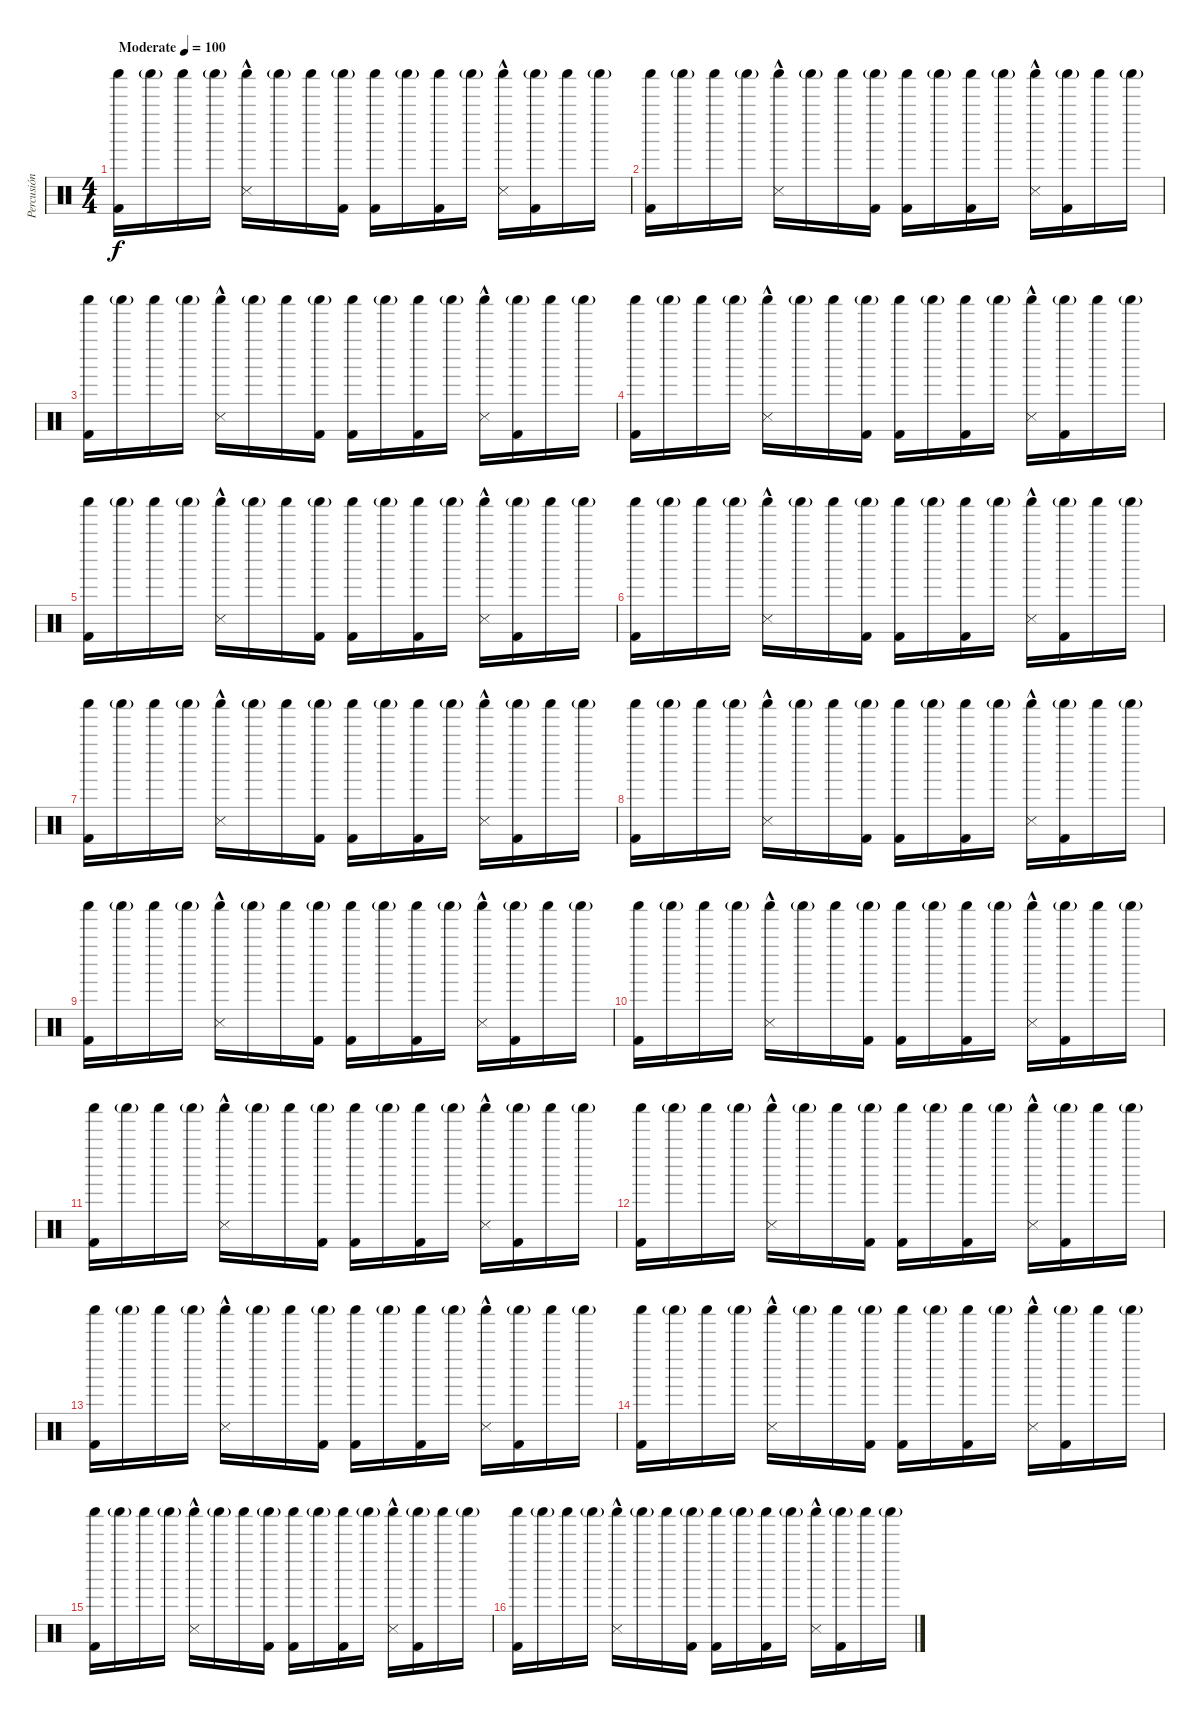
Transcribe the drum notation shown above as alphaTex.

\track ("Percusión" "Percusión") {instrument percussion}
\staff {score}
\articulation defaults
\ts (4 4)
\tempo (100 "Moderate")
\clef neutral
\ks c
("Shaker (hit)" "Kick (hit) 2").16{dy f} "Shaker (hit)"{g}.16 "Shaker (hit)".16 "Shaker (hit)"{g}.16 ("Shaker (hit)" "Metronome (hit)"{hac}).16 "Shaker (hit)"{g}.16 "Shaker (hit)".16 ("Shaker (hit)"{g} "Kick (hit) 2").16 ("Shaker (hit)" "Kick (hit) 2").16 "Shaker (hit)"{g}.16 ("Shaker (hit)" "Kick (hit) 2").16 "Shaker (hit)"{g}.16 ("Shaker (hit)" "Metronome (hit)"{hac}).16 ("Shaker (hit)"{g} "Kick (hit) 2").16 "Shaker (hit)".16 "Shaker (hit)"{g}.16 |
("Shaker (hit)" "Kick (hit) 2").16 "Shaker (hit)"{g}.16 "Shaker (hit)".16 "Shaker (hit)"{g}.16 ("Shaker (hit)" "Metronome (hit)"{hac}).16 "Shaker (hit)"{g}.16 "Shaker (hit)".16 ("Shaker (hit)"{g} "Kick (hit) 2").16 ("Shaker (hit)" "Kick (hit) 2").16 "Shaker (hit)"{g}.16 ("Shaker (hit)" "Kick (hit) 2").16 "Shaker (hit)"{g}.16 ("Shaker (hit)" "Metronome (hit)"{hac}).16 ("Shaker (hit)"{g} "Kick (hit) 2").16 "Shaker (hit)".16 "Shaker (hit)"{g}.16 |
("Shaker (hit)" "Kick (hit) 2").16 "Shaker (hit)"{g}.16 "Shaker (hit)".16 "Shaker (hit)"{g}.16 ("Shaker (hit)" "Metronome (hit)"{hac}).16 "Shaker (hit)"{g}.16 "Shaker (hit)".16 ("Shaker (hit)"{g} "Kick (hit) 2").16 ("Shaker (hit)" "Kick (hit) 2").16 "Shaker (hit)"{g}.16 ("Shaker (hit)" "Kick (hit) 2").16 "Shaker (hit)"{g}.16 ("Shaker (hit)" "Metronome (hit)"{hac}).16 ("Shaker (hit)"{g} "Kick (hit) 2").16 "Shaker (hit)".16 "Shaker (hit)"{g}.16 |
("Shaker (hit)" "Kick (hit) 2").16 "Shaker (hit)"{g}.16 "Shaker (hit)".16 "Shaker (hit)"{g}.16 ("Shaker (hit)" "Metronome (hit)"{hac}).16 "Shaker (hit)"{g}.16 "Shaker (hit)".16 ("Shaker (hit)"{g} "Kick (hit) 2").16 ("Shaker (hit)" "Kick (hit) 2").16 "Shaker (hit)"{g}.16 ("Shaker (hit)" "Kick (hit) 2").16 "Shaker (hit)"{g}.16 ("Shaker (hit)" "Metronome (hit)"{hac}).16 ("Shaker (hit)"{g} "Kick (hit) 2").16 "Shaker (hit)".16 "Shaker (hit)"{g}.16 |
("Shaker (hit)" "Kick (hit) 2").16 "Shaker (hit)"{g}.16 "Shaker (hit)".16 "Shaker (hit)"{g}.16 ("Shaker (hit)" "Metronome (hit)"{hac}).16 "Shaker (hit)"{g}.16 "Shaker (hit)".16 ("Shaker (hit)"{g} "Kick (hit) 2").16 ("Shaker (hit)" "Kick (hit) 2").16 "Shaker (hit)"{g}.16 ("Shaker (hit)" "Kick (hit) 2").16 "Shaker (hit)"{g}.16 ("Shaker (hit)" "Metronome (hit)"{hac}).16 ("Shaker (hit)"{g} "Kick (hit) 2").16 "Shaker (hit)".16 "Shaker (hit)"{g}.16 |
("Shaker (hit)" "Kick (hit) 2").16 "Shaker (hit)"{g}.16 "Shaker (hit)".16 "Shaker (hit)"{g}.16 ("Shaker (hit)" "Metronome (hit)"{hac}).16 "Shaker (hit)"{g}.16 "Shaker (hit)".16 ("Shaker (hit)"{g} "Kick (hit) 2").16 ("Shaker (hit)" "Kick (hit) 2").16 "Shaker (hit)"{g}.16 ("Shaker (hit)" "Kick (hit) 2").16 "Shaker (hit)"{g}.16 ("Shaker (hit)" "Metronome (hit)"{hac}).16 ("Shaker (hit)"{g} "Kick (hit) 2").16 "Shaker (hit)".16 "Shaker (hit)"{g}.16 |
("Shaker (hit)" "Kick (hit) 2").16 "Shaker (hit)"{g}.16 "Shaker (hit)".16 "Shaker (hit)"{g}.16 ("Shaker (hit)" "Metronome (hit)"{hac}).16 "Shaker (hit)"{g}.16 "Shaker (hit)".16 ("Shaker (hit)"{g} "Kick (hit) 2").16 ("Shaker (hit)" "Kick (hit) 2").16 "Shaker (hit)"{g}.16 ("Shaker (hit)" "Kick (hit) 2").16 "Shaker (hit)"{g}.16 ("Shaker (hit)" "Metronome (hit)"{hac}).16 ("Shaker (hit)"{g} "Kick (hit) 2").16 "Shaker (hit)".16 "Shaker (hit)"{g}.16 |
("Shaker (hit)" "Kick (hit) 2").16 "Shaker (hit)"{g}.16 "Shaker (hit)".16 "Shaker (hit)"{g}.16 ("Shaker (hit)" "Metronome (hit)"{hac}).16 "Shaker (hit)"{g}.16 "Shaker (hit)".16 ("Shaker (hit)"{g} "Kick (hit) 2").16 ("Shaker (hit)" "Kick (hit) 2").16 "Shaker (hit)"{g}.16 ("Shaker (hit)" "Kick (hit) 2").16 "Shaker (hit)"{g}.16 ("Shaker (hit)" "Metronome (hit)"{hac}).16 ("Shaker (hit)"{g} "Kick (hit) 2").16 "Shaker (hit)".16 "Shaker (hit)"{g}.16 |
("Shaker (hit)" "Kick (hit) 2").16 "Shaker (hit)"{g}.16 "Shaker (hit)".16 "Shaker (hit)"{g}.16 ("Shaker (hit)" "Metronome (hit)"{hac}).16 "Shaker (hit)"{g}.16 "Shaker (hit)".16 ("Shaker (hit)"{g} "Kick (hit) 2").16 ("Shaker (hit)" "Kick (hit) 2").16 "Shaker (hit)"{g}.16 ("Shaker (hit)" "Kick (hit) 2").16 "Shaker (hit)"{g}.16 ("Shaker (hit)" "Metronome (hit)"{hac}).16 ("Shaker (hit)"{g} "Kick (hit) 2").16 "Shaker (hit)".16 "Shaker (hit)"{g}.16 |
("Shaker (hit)" "Kick (hit) 2").16 "Shaker (hit)"{g}.16 "Shaker (hit)".16 "Shaker (hit)"{g}.16 ("Shaker (hit)" "Metronome (hit)"{hac}).16 "Shaker (hit)"{g}.16 "Shaker (hit)".16 ("Shaker (hit)"{g} "Kick (hit) 2").16 ("Shaker (hit)" "Kick (hit) 2").16 "Shaker (hit)"{g}.16 ("Shaker (hit)" "Kick (hit) 2").16 "Shaker (hit)"{g}.16 ("Shaker (hit)" "Metronome (hit)"{hac}).16 ("Shaker (hit)"{g} "Kick (hit) 2").16 "Shaker (hit)".16 "Shaker (hit)"{g}.16 |
("Shaker (hit)" "Kick (hit) 2").16 "Shaker (hit)"{g}.16 "Shaker (hit)".16 "Shaker (hit)"{g}.16 ("Shaker (hit)" "Metronome (hit)"{hac}).16 "Shaker (hit)"{g}.16 "Shaker (hit)".16 ("Shaker (hit)"{g} "Kick (hit) 2").16 ("Shaker (hit)" "Kick (hit) 2").16 "Shaker (hit)"{g}.16 ("Shaker (hit)" "Kick (hit) 2").16 "Shaker (hit)"{g}.16 ("Shaker (hit)" "Metronome (hit)"{hac}).16 ("Shaker (hit)"{g} "Kick (hit) 2").16 "Shaker (hit)".16 "Shaker (hit)"{g}.16 |
("Shaker (hit)" "Kick (hit) 2").16 "Shaker (hit)"{g}.16 "Shaker (hit)".16 "Shaker (hit)"{g}.16 ("Shaker (hit)" "Metronome (hit)"{hac}).16 "Shaker (hit)"{g}.16 "Shaker (hit)".16 ("Shaker (hit)"{g} "Kick (hit) 2").16 ("Shaker (hit)" "Kick (hit) 2").16 "Shaker (hit)"{g}.16 ("Shaker (hit)" "Kick (hit) 2").16 "Shaker (hit)"{g}.16 ("Shaker (hit)" "Metronome (hit)"{hac}).16 ("Shaker (hit)"{g} "Kick (hit) 2").16 "Shaker (hit)".16 "Shaker (hit)"{g}.16 |
("Shaker (hit)" "Kick (hit) 2").16 "Shaker (hit)"{g}.16 "Shaker (hit)".16 "Shaker (hit)"{g}.16 ("Shaker (hit)" "Metronome (hit)"{hac}).16 "Shaker (hit)"{g}.16 "Shaker (hit)".16 ("Shaker (hit)"{g} "Kick (hit) 2").16 ("Shaker (hit)" "Kick (hit) 2").16 "Shaker (hit)"{g}.16 ("Shaker (hit)" "Kick (hit) 2").16 "Shaker (hit)"{g}.16 ("Shaker (hit)" "Metronome (hit)"{hac}).16 ("Shaker (hit)"{g} "Kick (hit) 2").16 "Shaker (hit)".16 "Shaker (hit)"{g}.16 |
("Shaker (hit)" "Kick (hit) 2").16 "Shaker (hit)"{g}.16 "Shaker (hit)".16 "Shaker (hit)"{g}.16 ("Shaker (hit)" "Metronome (hit)"{hac}).16 "Shaker (hit)"{g}.16 "Shaker (hit)".16 ("Shaker (hit)"{g} "Kick (hit) 2").16 ("Shaker (hit)" "Kick (hit) 2").16 "Shaker (hit)"{g}.16 ("Shaker (hit)" "Kick (hit) 2").16 "Shaker (hit)"{g}.16 ("Shaker (hit)" "Metronome (hit)"{hac}).16 ("Shaker (hit)"{g} "Kick (hit) 2").16 "Shaker (hit)".16 "Shaker (hit)"{g}.16 |
("Shaker (hit)" "Kick (hit) 2").16 "Shaker (hit)"{g}.16 "Shaker (hit)".16 "Shaker (hit)"{g}.16 ("Shaker (hit)" "Metronome (hit)"{hac}).16 "Shaker (hit)"{g}.16 "Shaker (hit)".16 ("Shaker (hit)"{g} "Kick (hit) 2").16 ("Shaker (hit)" "Kick (hit) 2").16 "Shaker (hit)"{g}.16 ("Shaker (hit)" "Kick (hit) 2").16 "Shaker (hit)"{g}.16 ("Shaker (hit)" "Metronome (hit)"{hac}).16 ("Shaker (hit)"{g} "Kick (hit) 2").16 "Shaker (hit)".16 "Shaker (hit)"{g}.16 |
("Shaker (hit)" "Kick (hit) 2").16 "Shaker (hit)"{g}.16 "Shaker (hit)".16 "Shaker (hit)"{g}.16 ("Shaker (hit)" "Metronome (hit)"{hac}).16 "Shaker (hit)"{g}.16 "Shaker (hit)".16 ("Shaker (hit)"{g} "Kick (hit) 2").16 ("Shaker (hit)" "Kick (hit) 2").16 "Shaker (hit)"{g}.16 ("Shaker (hit)" "Kick (hit) 2").16 "Shaker (hit)"{g}.16 ("Shaker (hit)" "Metronome (hit)"{hac}).16 ("Shaker (hit)"{g} "Kick (hit) 2").16 "Shaker (hit)".16 "Shaker (hit)"{g}.16
